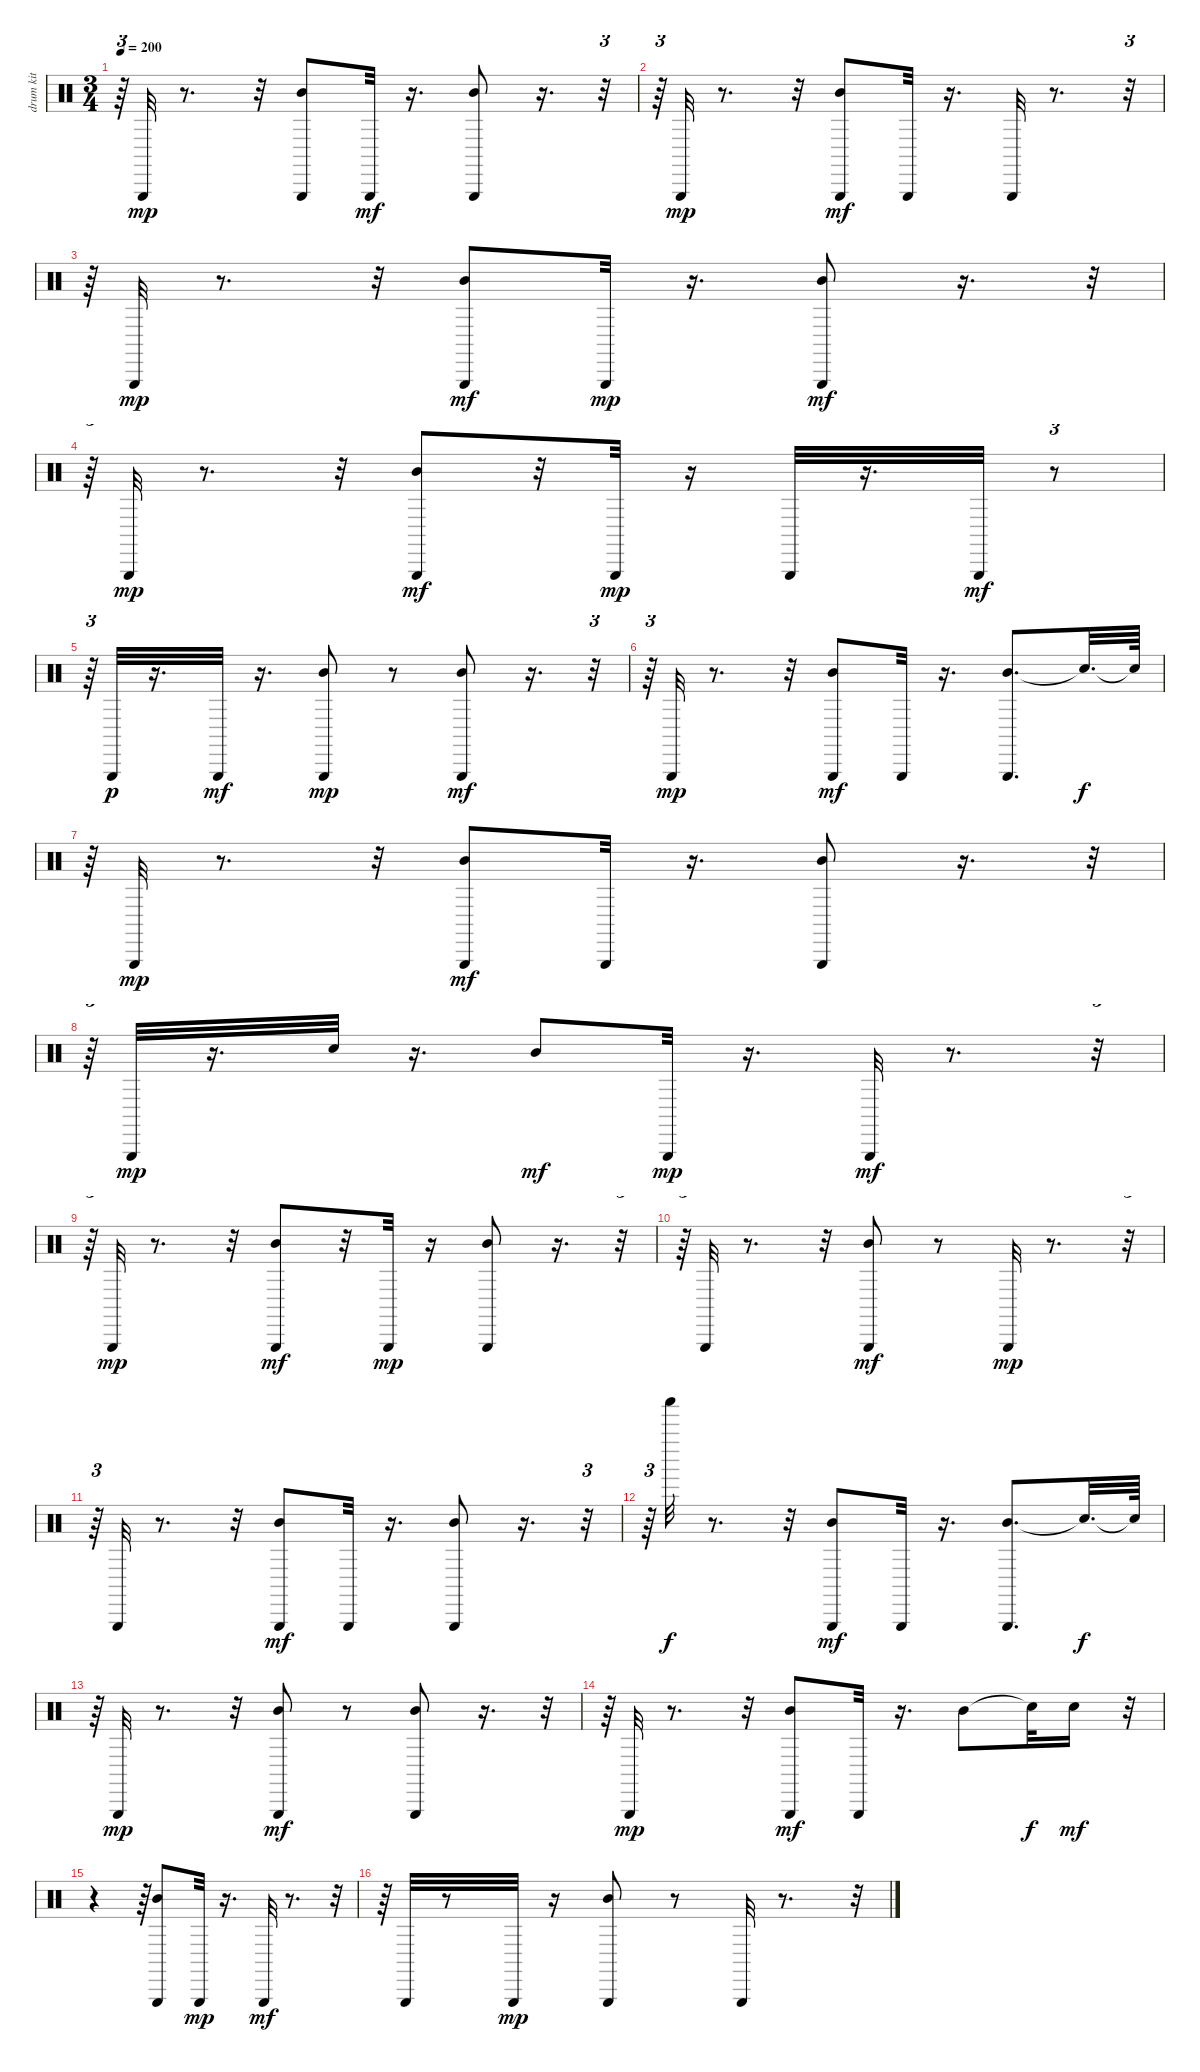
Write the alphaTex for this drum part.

\track (" drum kit (hi-hat/cymbals)" " drum kit ") {instrument percussion}
\staff {score}
\articulation defaults
\ts (3 4)
\tempo 200
\clef neutral
\ks c
r.64{tu (3 2) dy mp} "Triangle (hit)".32 r.8{d} r.32 ("Mid Tom (hit)" "Triangle (hit)").8 "Triangle (hit)".32{dy mf} r.16{d} ("Mid Tom (hit)" "Triangle (hit)").8 r.16{d} r.32{tu (3 2)} |
r.64{tu (3 2)} "Triangle (hit)".32{dy mp} r.8{d} r.32 ("Mid Tom (hit)" "Triangle (hit)").8{dy mf} "Triangle (hit)".32 r.16{d} "Triangle (hit)".32 r.8{d} r.32{tu (3 2)} |
r.64{tu (3 2)} "Triangle (hit)".32{dy mp} r.8{d} r.32 ("Mid Tom (hit)" "Triangle (hit)").8{dy mf} "Triangle (hit)".32{dy mp} r.16{d} ("Mid Tom (hit)" "Triangle (hit)").8{dy mf} r.16{d} r.32{tu (3 2)} |
r.64{tu (3 2)} "Triangle (hit)".32{dy mp} r.8{d} r.32 ("Mid Tom (hit)" "Triangle (hit)").8{dy mf} r.32 "Triangle (hit)".32{dy mp} r.16 "Triangle (hit)".32 r.16{d} "Triangle (hit)".32{dy mf} r.8{tu (3 2)} |
r.64{tu (3 2)} "Triangle (hit)".32{dy p} r.16{d} "Triangle (hit)".32{dy mf} r.16{d} ("Mid Tom (hit)" "Triangle (hit)").8{dy mp} r.8 ("Triangle (hit)" "Mid Tom (hit)").8{dy mf} r.16{d} r.32{tu (3 2)} |
r.64{tu (3 2)} "Triangle (hit)".32{dy mp} r.8{d} r.32 ("Mid Tom (hit)" "Triangle (hit)").8{dy mf} "Triangle (hit)".32 r.16{d} ("Mid Tom (hit)" "Triangle (hit)").8{d} "Snare (hit)"{t}.32{d dy f} "Snare (hit)"{t}.64 |
r.64{tu (3 2)} "Triangle (hit)".32{dy mp} r.8{d} r.32 ("Mid Tom (hit)" "Triangle (hit)").8{dy mf} "Triangle (hit)".32 r.16{d} ("Mid Tom (hit)" "Triangle (hit)").8 r.16{d} r.32{tu (3 2)} |
r.64{tu (3 2)} "Triangle (hit)".32{dy mp} r.16{d} "Snare (hit)".32 r.16{d} "Mid Tom (hit)".8{dy mf} "Triangle (hit)".32{dy mp} r.16{d} "Triangle (hit)".32{dy mf} r.8{d} r.32{tu (3 2)} |
r.64{tu (3 2)} "Triangle (hit)".32{dy mp} r.8{d} r.32 ("Mid Tom (hit)" "Triangle (hit)").8{dy mf} r.32 "Triangle (hit)".32{dy mp} r.16 ("Mid Tom (hit)" "Triangle (hit)").8 r.16{d} r.32{tu (3 2)} |
r.64{tu (3 2)} "Triangle (hit)".32 r.8{d} r.32 ("Triangle (hit)" "Mid Tom (hit)").8{dy mf} r.8 "Triangle (hit)".32{dy mp} r.8{d} r.32{tu (3 2)} |
r.64{tu (3 2)} "Triangle (hit)".32 r.8{d} r.32 ("Mid Tom (hit)" "Triangle (hit)").8{dy mf} "Triangle (hit)".32 r.16{d} ("Mid Tom (hit)" "Triangle (hit)").8 r.16{d} r.32{tu (3 2)} |
r.64{tu (3 2)} "Shaker (hit)".32{dy f} r.8{d} r.32 ("Mid Tom (hit)" "Triangle (hit)").8{dy mf} "Triangle (hit)".32 r.16{d} ("Mid Tom (hit)" "Triangle (hit)").8{d} "Snare (hit)"{t}.32{d dy f} "Snare (hit)"{t}.64 |
r.64{tu (3 2)} "Triangle (hit)".32{dy mp} r.8{d} r.32 ("Mid Tom (hit)" "Triangle (hit)").8{dy mf} r.8 ("Mid Tom (hit)" "Triangle (hit)").8 r.16{d} r.32{tu (3 2)} |
r.64{tu (3 2)} "Triangle (hit)".32{dy mp} r.8{d} r.32 ("Mid Tom (hit)" "Triangle (hit)").8{dy mf} "Triangle (hit)".32 r.16{d} "Mid Tom (hit)".8 "Snare (hit)"{t}.32{dy f} "Snare (hit)".16{dy mf} r.32{tu (3 2)} |
r.4 r.64{tu (3 2)} ("Mid Tom (hit)" "Triangle (hit)").8 "Triangle (hit)".32{dy mp} r.16{d} "Triangle (hit)".32{dy mf} r.8{d} r.32{tu (3 2)} |
r.64{tu (3 2)} "Triangle (hit)".32 r.8 "Triangle (hit)".32{dy mp} r.16 ("Mid Tom (hit)" "Triangle (hit)").8 r.8 "Triangle (hit)".32 r.8{d} r.32{tu (3 2)}
